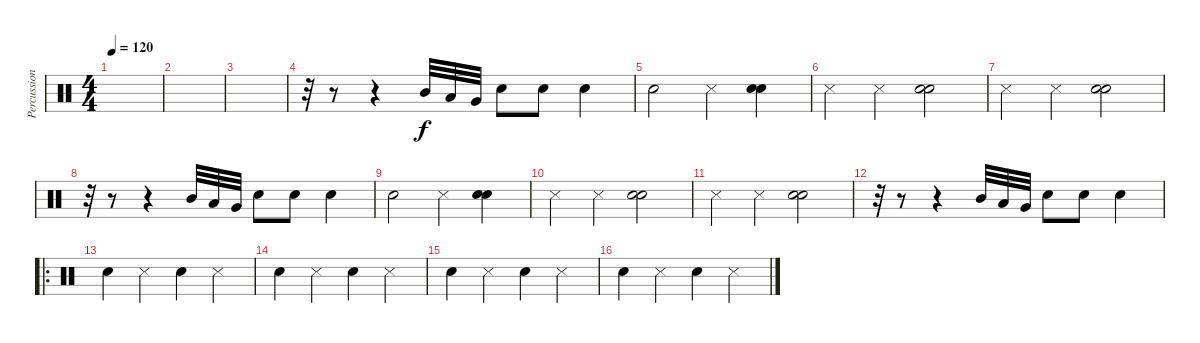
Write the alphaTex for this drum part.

\track ("Percussion" "Percussion") {instrument percussion}
\staff {score}
\articulation defaults
\ts (4 4)
\tempo 120
\clef neutral
\ks c
|
|
|
r.32 r.8 r.4 "Mid Tom (hit)".32 "Low Tom (hit)".32 "Very Low Tom (hit)".32 "Snare (hit) 2".8 "Snare (hit) 2".8 "Snare (hit) 2".4 |
"Snare (hit) 2".2 "Snare (side stick) 3".4 ("Snare (hit) 2" "Snare (hit) 2").4 |
"Snare (side stick) 3".4 "Snare (side stick) 3".4 ("Snare (hit) 2" "Snare (hit) 2").2 |
"Snare (side stick) 3".4 "Snare (side stick) 3".4 ("Snare (hit) 2" "Snare (hit) 2").2 |
r.32 r.8 r.4 "Mid Tom (hit)".32 "Low Tom (hit)".32 "Very Low Tom (hit)".32 "Snare (hit) 2".8 "Snare (hit) 2".8 "Snare (hit) 2".4 |
"Snare (hit) 2".2 "Snare (side stick) 3".4 ("Snare (hit) 2" "Snare (hit) 2").4 |
"Snare (side stick) 3".4 "Snare (side stick) 3".4 ("Snare (hit) 2" "Snare (hit) 2").2 |
"Snare (side stick) 3".4 "Snare (side stick) 3".4 ("Snare (hit) 2" "Snare (hit) 2").2 |
r.32 r.8 r.4 "Mid Tom (hit)".32 "Low Tom (hit)".32 "Very Low Tom (hit)".32 "Snare (hit) 2".8 "Snare (hit) 2".8 "Snare (hit) 2".4 |
\ro "Snare (hit) 2".4 "Snare (side stick) 3".4 "Snare (hit) 2".4 "Snare (side stick) 3".4
|
"Snare (hit) 2".4 "Snare (side stick) 3".4 "Snare (hit) 2".4 "Snare (side stick) 3".4 |
"Snare (hit) 2".4 "Snare (side stick) 3".4 "Snare (hit) 2".4 "Snare (side stick) 3".4 |
"Snare (hit) 2".4 "Snare (side stick) 3".4 "Snare (hit) 2".4 "Snare (side stick) 3".4
